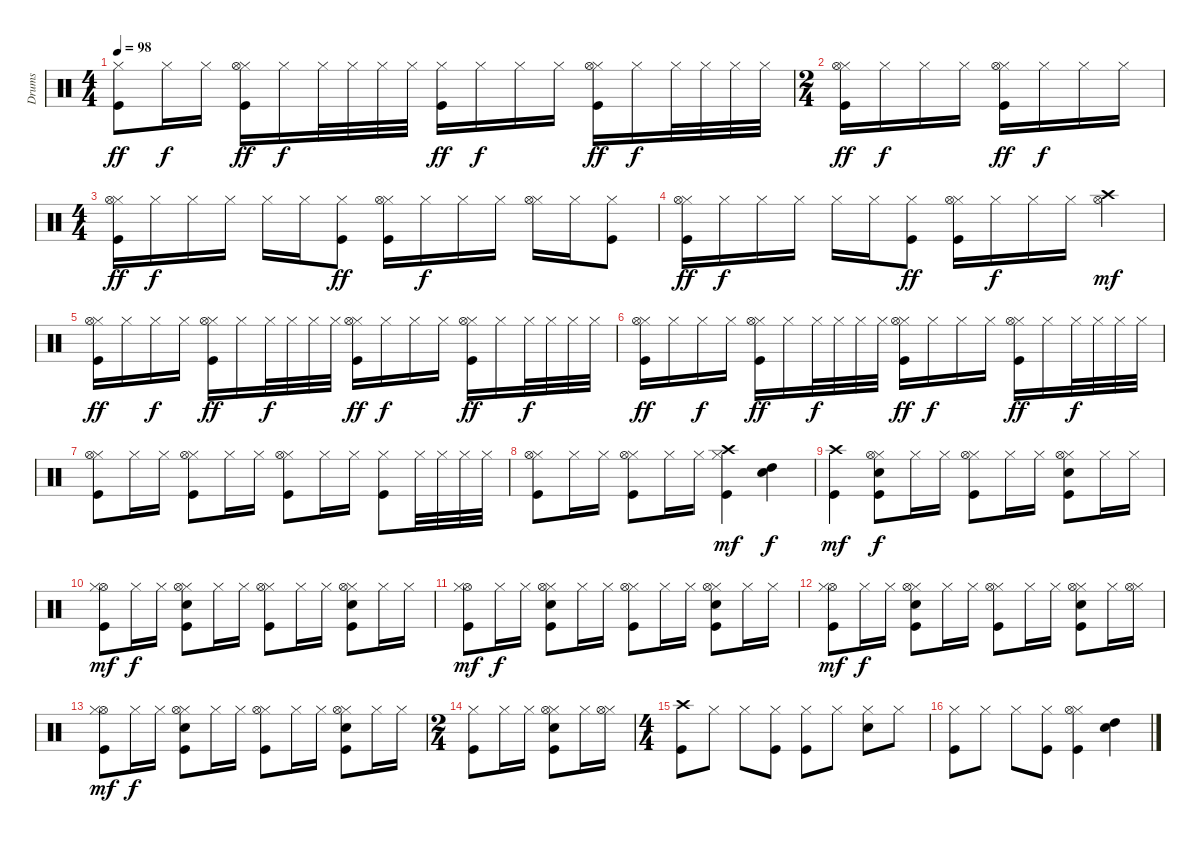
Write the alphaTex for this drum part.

\track ("Drums" "Drums") {instrument percussion}
\staff {score}
\articulation defaults
\ts (4 4)
\tempo 98
\clef neutral
\ks c
("Hi-Hat (closed)" "Kick (hit)").8{dy ff} "Hi-Hat (closed)".16{dy f} "Hi-Hat (closed)".16 ("Hi-Hat (closed)" "Kick (hit)" "Hi-Hat (open)").16{dy ff} "Hi-Hat (closed)".16{dy f} "Hi-Hat (closed)".32 "Hi-Hat (closed)".32 "Hi-Hat (closed)".32 "Hi-Hat (closed)".32 ("Hi-Hat (closed)" "Kick (hit)").16{dy ff} "Hi-Hat (closed)".16{dy f} "Hi-Hat (closed)".16 "Hi-Hat (closed)".16 ("Hi-Hat (closed)" "Kick (hit)" "Hi-Hat (open)").16{dy ff} "Hi-Hat (closed)".16{dy f} "Hi-Hat (closed)".32 "Hi-Hat (closed)".32 "Hi-Hat (closed)".32 "Hi-Hat (closed)".32 |
\ts (2 4)
("Hi-Hat (closed)" "Kick (hit)" "Hi-Hat (open)").16{dy ff} "Hi-Hat (closed)".16{dy f} "Hi-Hat (closed)".16 "Hi-Hat (closed)".16 ("Hi-Hat (closed)" "Kick (hit)" "Hi-Hat (open)").16{dy ff} "Hi-Hat (closed)".16{dy f} "Hi-Hat (closed)".16 "Hi-Hat (closed)".16 |
\ts (4 4)
("Hi-Hat (closed)" "Kick (hit)" "Hi-Hat (open)").16{dy ff} "Hi-Hat (closed)".16{dy f} "Hi-Hat (closed)".16 "Hi-Hat (closed)".16 "Hi-Hat (closed)".16 "Hi-Hat (closed)".16 ("Hi-Hat (closed)" "Kick (hit)").8{dy ff} ("Hi-Hat (closed)" "Kick (hit)" "Hi-Hat (open)").16 "Hi-Hat (closed)".16{dy f} "Hi-Hat (closed)".16 "Hi-Hat (closed)".16 ("Hi-Hat (closed)" "Hi-Hat (open)").16 "Hi-Hat (closed)".16 ("Hi-Hat (closed)" "Kick (hit)").8 |
("Hi-Hat (closed)" "Kick (hit)" "Hi-Hat (open)").16{dy ff} "Hi-Hat (closed)".16{dy f} "Hi-Hat (closed)".16 "Hi-Hat (closed)".16 "Hi-Hat (closed)".16 "Hi-Hat (closed)".16 ("Hi-Hat (closed)" "Kick (hit)").8{dy ff} ("Hi-Hat (closed)" "Kick (hit)" "Hi-Hat (open)").16 "Hi-Hat (closed)".16{dy f} "Hi-Hat (closed)".16 "Hi-Hat (closed)".16 ("Crash high (hit)" "Hi-Hat (open)").4{dy mf} |
("Hi-Hat (closed)" "Kick (hit)" "Hi-Hat (open)").16{dy ff} "Hi-Hat (closed)".16 "Hi-Hat (closed)".16{dy f} "Hi-Hat (closed)".16 ("Hi-Hat (closed)" "Kick (hit)" "Hi-Hat (open)").16{dy ff} "Hi-Hat (closed)".16 "Hi-Hat (closed)".32{dy f} "Hi-Hat (closed)".32 "Hi-Hat (closed)".32 "Hi-Hat (closed)".32 ("Hi-Hat (closed)" "Kick (hit)" "Hi-Hat (open)").16{dy ff} "Hi-Hat (closed)".16{dy f} "Hi-Hat (closed)".16 "Hi-Hat (closed)".16 ("Hi-Hat (closed)" "Kick (hit)" "Hi-Hat (open)").16{dy ff} "Hi-Hat (closed)".16 "Hi-Hat (closed)".32{dy f} "Hi-Hat (closed)".32 "Hi-Hat (closed)".32 "Hi-Hat (closed)".32 |
("Hi-Hat (closed)" "Kick (hit)" "Hi-Hat (open)").16{dy ff} "Hi-Hat (closed)".16 "Hi-Hat (closed)".16{dy f} "Hi-Hat (closed)".16 ("Hi-Hat (closed)" "Kick (hit)" "Hi-Hat (open)").16{dy ff} "Hi-Hat (closed)".16 "Hi-Hat (closed)".32{dy f} "Hi-Hat (closed)".32 "Hi-Hat (closed)".32 "Hi-Hat (closed)".32 ("Hi-Hat (closed)" "Kick (hit)" "Hi-Hat (open)").16{dy ff} "Hi-Hat (closed)".16{dy f} "Hi-Hat (closed)".16 "Hi-Hat (closed)".16 ("Hi-Hat (closed)" "Kick (hit)" "Hi-Hat (open)").16{dy ff} "Hi-Hat (closed)".16 "Hi-Hat (closed)".32{dy f} "Hi-Hat (closed)".32 "Hi-Hat (closed)".32 "Hi-Hat (closed)".32 |
("Hi-Hat (closed)" "Kick (hit)" "Hi-Hat (open)").8 "Hi-Hat (closed)".16 "Hi-Hat (closed)".16 ("Hi-Hat (closed)" "Kick (hit)" "Hi-Hat (open)").8 "Hi-Hat (closed)".16 "Hi-Hat (closed)".16 ("Hi-Hat (closed)" "Kick (hit)" "Hi-Hat (open)").8 "Hi-Hat (closed)".16 "Hi-Hat (closed)".16 ("Hi-Hat (closed)" "Kick (hit)").8 "Hi-Hat (closed)".32 "Hi-Hat (closed)".32 "Hi-Hat (closed)".32 "Hi-Hat (closed)".32 |
("Hi-Hat (closed)" "Kick (hit)" "Hi-Hat (open)").8 "Hi-Hat (closed)".16 "Hi-Hat (closed)".16 ("Hi-Hat (closed)" "Kick (hit)" "Hi-Hat (open)").8 "Hi-Hat (closed)".16 "Hi-Hat (closed)".16 ("Hi-Hat (closed)" "Kick (hit)" "Crash high (hit)").4{dy mf} ("Electric Snare (hit)" "High Tom (hit)").4{dy f} |
("Kick (hit)" "Crash high (hit)").4{dy mf} ("Kick (hit)" "Electric Snare (hit)" "Hi-Hat (closed)" "Hi-Hat (open)").8{dy f} "Hi-Hat (closed)".16 "Hi-Hat (closed)".16 ("Hi-Hat (closed)" "Kick (hit)" "Hi-Hat (open)").8 "Hi-Hat (closed)".16 "Hi-Hat (closed)".16 ("Hi-Hat (closed)" "Electric Snare (hit)" "Kick (hit)" "Hi-Hat (open)").8 "Hi-Hat (closed)".16 "Hi-Hat (closed)".16 |
("Kick (hit)" "Hi-Hat (open)" "Hi-Hat (closed)").8{dy mf} "Hi-Hat (closed)".16{dy f} "Hi-Hat (closed)".16 ("Kick (hit)" "Electric Snare (hit)" "Hi-Hat (closed)" "Hi-Hat (open)").8 "Hi-Hat (closed)".16 "Hi-Hat (closed)".16 ("Hi-Hat (closed)" "Kick (hit)" "Hi-Hat (open)").8 "Hi-Hat (closed)".16 "Hi-Hat (closed)".16 ("Hi-Hat (closed)" "Electric Snare (hit)" "Kick (hit)" "Hi-Hat (open)").8 "Hi-Hat (closed)".16 "Hi-Hat (closed)".16 |
("Kick (hit)" "Hi-Hat (open)" "Hi-Hat (closed)").8{dy mf} "Hi-Hat (closed)".16{dy f} "Hi-Hat (closed)".16 ("Kick (hit)" "Electric Snare (hit)" "Hi-Hat (closed)" "Hi-Hat (open)").8 "Hi-Hat (closed)".16 "Hi-Hat (closed)".16 ("Hi-Hat (closed)" "Kick (hit)" "Hi-Hat (open)").8 "Hi-Hat (closed)".16 "Hi-Hat (closed)".16 ("Hi-Hat (closed)" "Electric Snare (hit)" "Kick (hit)" "Hi-Hat (open)").8 "Hi-Hat (closed)".16 "Hi-Hat (closed)".16 |
("Kick (hit)" "Hi-Hat (open)" "Hi-Hat (closed)").8{dy mf} "Hi-Hat (closed)".16{dy f} "Hi-Hat (closed)".16 ("Kick (hit)" "Electric Snare (hit)" "Hi-Hat (closed)" "Hi-Hat (open)").8 "Hi-Hat (closed)".16 "Hi-Hat (closed)".16 ("Hi-Hat (closed)" "Kick (hit)" "Hi-Hat (open)").8 "Hi-Hat (closed)".16 "Hi-Hat (closed)".16 ("Hi-Hat (closed)" "Electric Snare (hit)" "Kick (hit)" "Hi-Hat (open)").8 "Hi-Hat (closed)".16 ("Hi-Hat (closed)" "Hi-Hat (open)").16 |
("Kick (hit)" "Hi-Hat (open)" "Hi-Hat (closed)").8{dy mf} "Hi-Hat (closed)".16{dy f} "Hi-Hat (closed)".16 ("Kick (hit)" "Electric Snare (hit)" "Hi-Hat (closed)" "Hi-Hat (open)").8 "Hi-Hat (closed)".16 "Hi-Hat (closed)".16 ("Hi-Hat (closed)" "Kick (hit)" "Hi-Hat (open)").8 "Hi-Hat (closed)".16 "Hi-Hat (closed)".16 ("Hi-Hat (closed)" "Electric Snare (hit)" "Kick (hit)" "Hi-Hat (open)").8 "Hi-Hat (closed)".16 "Hi-Hat (closed)".16 |
\ts (2 4)
("Hi-Hat (closed)" "Kick (hit)").8 "Hi-Hat (closed)".16 "Hi-Hat (closed)".16 ("Hi-Hat (closed)" "Electric Snare (hit)" "Kick (hit)" "Hi-Hat (open)").8 "Hi-Hat (closed)".16 ("Hi-Hat (closed)" "Hi-Hat (open)").16 |
\ts (4 4)
("Kick (hit)" "Crash high (hit)").8 "Hi-Hat (closed)".8 "Hi-Hat (closed)".8 ("Hi-Hat (closed)" "Kick (hit)").8 ("Hi-Hat (closed)" "Kick (hit)").8 "Hi-Hat (closed)".8 ("Hi-Hat (closed)" "Electric Snare (hit)").8 "Hi-Hat (closed)".8 |
("Hi-Hat (closed)" "Kick (hit)").8 "Hi-Hat (closed)".8 "Hi-Hat (closed)".8 ("Hi-Hat (closed)" "Kick (hit)").8 ("Hi-Hat (closed)" "Kick (hit)" "Hi-Hat (open)").4 ("High Tom (hit)" "Electric Snare (hit)").4
